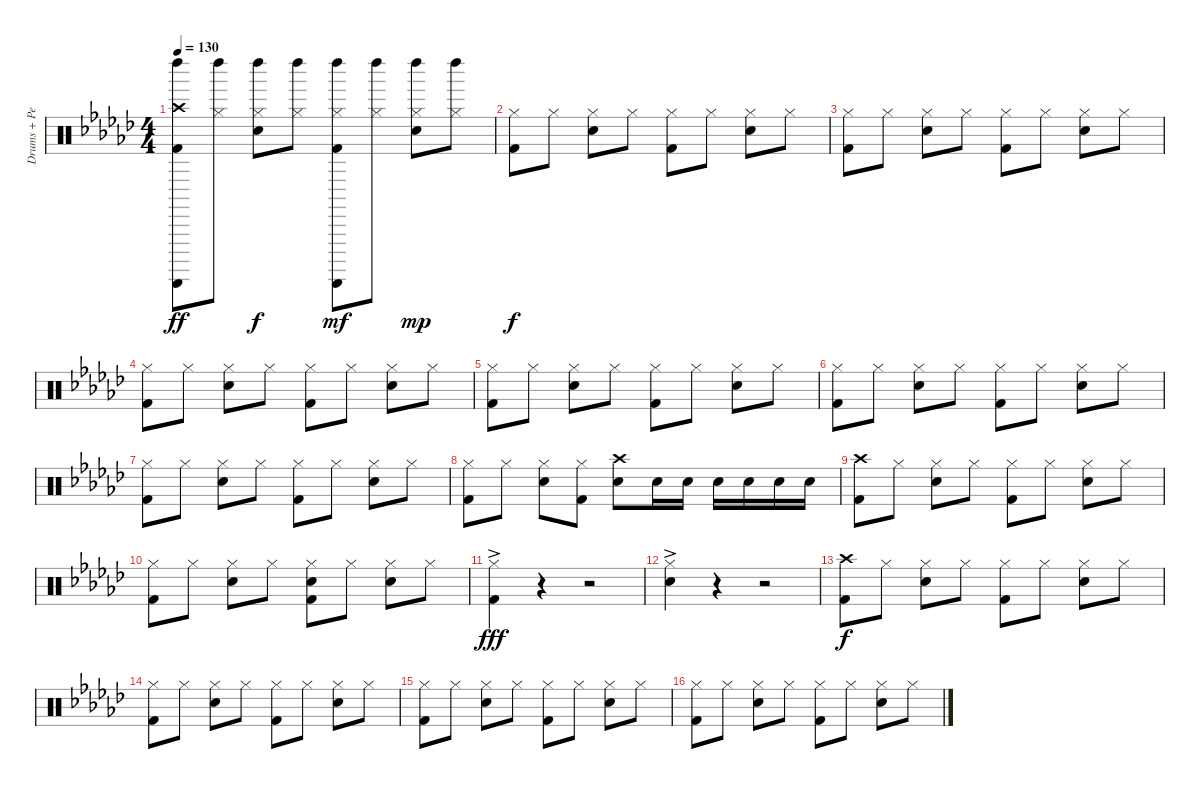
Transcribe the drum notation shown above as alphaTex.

\track ("Drums + Percussions" "Drums + Pe") {instrument percussion}
\staff {score}
\articulation defaults
\ts (4 4)
\tempo 130
\clef neutral
\ks gb
("Crash high (hit)" "Left Maraca (hit)" "Guiro (scrap-return)" "Kick (hit) 2").8{dy ff} ("Hi-Hat (closed)" "Left Maraca (hit)").8 ("Hi-Hat (closed)" "Left Maraca (hit)" "Electric Snare (hit)").8{dy f} ("Hi-Hat (closed)" "Left Maraca (hit)").8 ("Hi-Hat (closed)" "Left Maraca (hit)" "Guiro (scrap-return)" "Kick (hit) 2").8{dy mf} ("Hi-Hat (closed)" "Left Maraca (hit)").8 ("Hi-Hat (closed)" "Left Maraca (hit)" "Electric Snare (hit)").8{dy mp} ("Hi-Hat (closed)" "Left Maraca (hit)").8 |
("Hi-Hat (closed)" "Kick (hit) 2").8{dy f} "Hi-Hat (closed)".8 ("Hi-Hat (closed)" "Electric Snare (hit)").8 "Hi-Hat (closed)".8 ("Hi-Hat (closed)" "Kick (hit) 2").8 "Hi-Hat (closed)".8 ("Hi-Hat (closed)" "Electric Snare (hit)").8 "Hi-Hat (closed)".8 |
("Hi-Hat (closed)" "Kick (hit) 2").8 "Hi-Hat (closed)".8 ("Hi-Hat (closed)" "Electric Snare (hit)").8 "Hi-Hat (closed)".8 ("Hi-Hat (closed)" "Kick (hit) 2").8 "Hi-Hat (closed)".8 ("Hi-Hat (closed)" "Electric Snare (hit)").8 "Hi-Hat (closed)".8 |
("Hi-Hat (closed)" "Kick (hit) 2").8 "Hi-Hat (closed)".8 ("Hi-Hat (closed)" "Electric Snare (hit)").8 "Hi-Hat (closed)".8 ("Hi-Hat (closed)" "Kick (hit) 2").8 "Hi-Hat (closed)".8 ("Hi-Hat (closed)" "Electric Snare (hit)").8 "Hi-Hat (closed)".8 |
("Hi-Hat (closed)" "Kick (hit) 2").8 "Hi-Hat (closed)".8 ("Hi-Hat (closed)" "Electric Snare (hit)").8 "Hi-Hat (closed)".8 ("Hi-Hat (closed)" "Kick (hit) 2").8 "Hi-Hat (closed)".8 ("Hi-Hat (closed)" "Electric Snare (hit)").8 "Hi-Hat (closed)".8 |
("Hi-Hat (closed)" "Kick (hit) 2").8 "Hi-Hat (closed)".8 ("Hi-Hat (closed)" "Electric Snare (hit)").8 "Hi-Hat (closed)".8 ("Hi-Hat (closed)" "Kick (hit) 2").8 "Hi-Hat (closed)".8 ("Hi-Hat (closed)" "Electric Snare (hit)").8 "Hi-Hat (closed)".8 |
("Hi-Hat (closed)" "Kick (hit) 2").8 "Hi-Hat (closed)".8 ("Hi-Hat (closed)" "Electric Snare (hit)").8 "Hi-Hat (closed)".8 ("Hi-Hat (closed)" "Kick (hit) 2").8 "Hi-Hat (closed)".8 ("Hi-Hat (closed)" "Electric Snare (hit)").8 "Hi-Hat (closed)".8 |
("Hi-Hat (closed)" "Kick (hit) 2").8 "Hi-Hat (closed)".8 ("Hi-Hat (closed)" "Electric Snare (hit)").8 ("Hi-Hat (closed)" "Kick (hit) 2").8 ("Crash high (hit)" "Electric Snare (hit)").8 "Electric Snare (hit)".16 "Electric Snare (hit)".16 "Electric Snare (hit)".16 "Electric Snare (hit)".16 "Electric Snare (hit)".16 "Electric Snare (hit)".16 |
("Crash high (hit)" "Kick (hit) 2").8 "Hi-Hat (closed)".8 ("Hi-Hat (closed)" "Electric Snare (hit)").8 "Hi-Hat (closed)".8 ("Hi-Hat (closed)" "Kick (hit) 2").8 "Hi-Hat (closed)".8 ("Hi-Hat (closed)" "Electric Snare (hit)").8 "Hi-Hat (closed)".8 |
("Hi-Hat (closed)" "Kick (hit) 2").8 "Hi-Hat (closed)".8 ("Hi-Hat (closed)" "Electric Snare (hit)").8 "Hi-Hat (closed)".8 ("Hi-Hat (closed)" "Electric Snare (hit)" "Kick (hit) 2").8 "Hi-Hat (closed)".8 ("Hi-Hat (closed)" "Electric Snare (hit)").8 "Hi-Hat (closed)".8 |
("Hi-Hat (closed)"{ac} "Kick (hit) 2"{ac}).4{dy fff} r.4 r.2 |
("Hi-Hat (closed)"{ac} "Electric Snare (hit)"{ac}).4 r.4 r.2 |
("Crash high (hit)" "Kick (hit) 2").8{dy f} "Hi-Hat (closed)".8 ("Hi-Hat (closed)" "Electric Snare (hit)").8 "Hi-Hat (closed)".8 ("Hi-Hat (closed)" "Kick (hit) 2").8 "Hi-Hat (closed)".8 ("Hi-Hat (closed)" "Electric Snare (hit)").8 "Hi-Hat (closed)".8 |
("Hi-Hat (closed)" "Kick (hit) 2").8 "Hi-Hat (closed)".8 ("Hi-Hat (closed)" "Electric Snare (hit)").8 "Hi-Hat (closed)".8 ("Hi-Hat (closed)" "Kick (hit) 2").8 "Hi-Hat (closed)".8 ("Hi-Hat (closed)" "Electric Snare (hit)").8 "Hi-Hat (closed)".8 |
("Hi-Hat (closed)" "Kick (hit) 2").8 "Hi-Hat (closed)".8 ("Hi-Hat (closed)" "Electric Snare (hit)").8 "Hi-Hat (closed)".8 ("Hi-Hat (closed)" "Kick (hit) 2").8 "Hi-Hat (closed)".8 ("Hi-Hat (closed)" "Electric Snare (hit)").8 "Hi-Hat (closed)".8 |
("Hi-Hat (closed)" "Kick (hit) 2").8 "Hi-Hat (closed)".8 ("Hi-Hat (closed)" "Electric Snare (hit)").8 "Hi-Hat (closed)".8 ("Hi-Hat (closed)" "Kick (hit) 2").8 "Hi-Hat (closed)".8 ("Hi-Hat (closed)" "Electric Snare (hit)").8 "Hi-Hat (closed)".8
